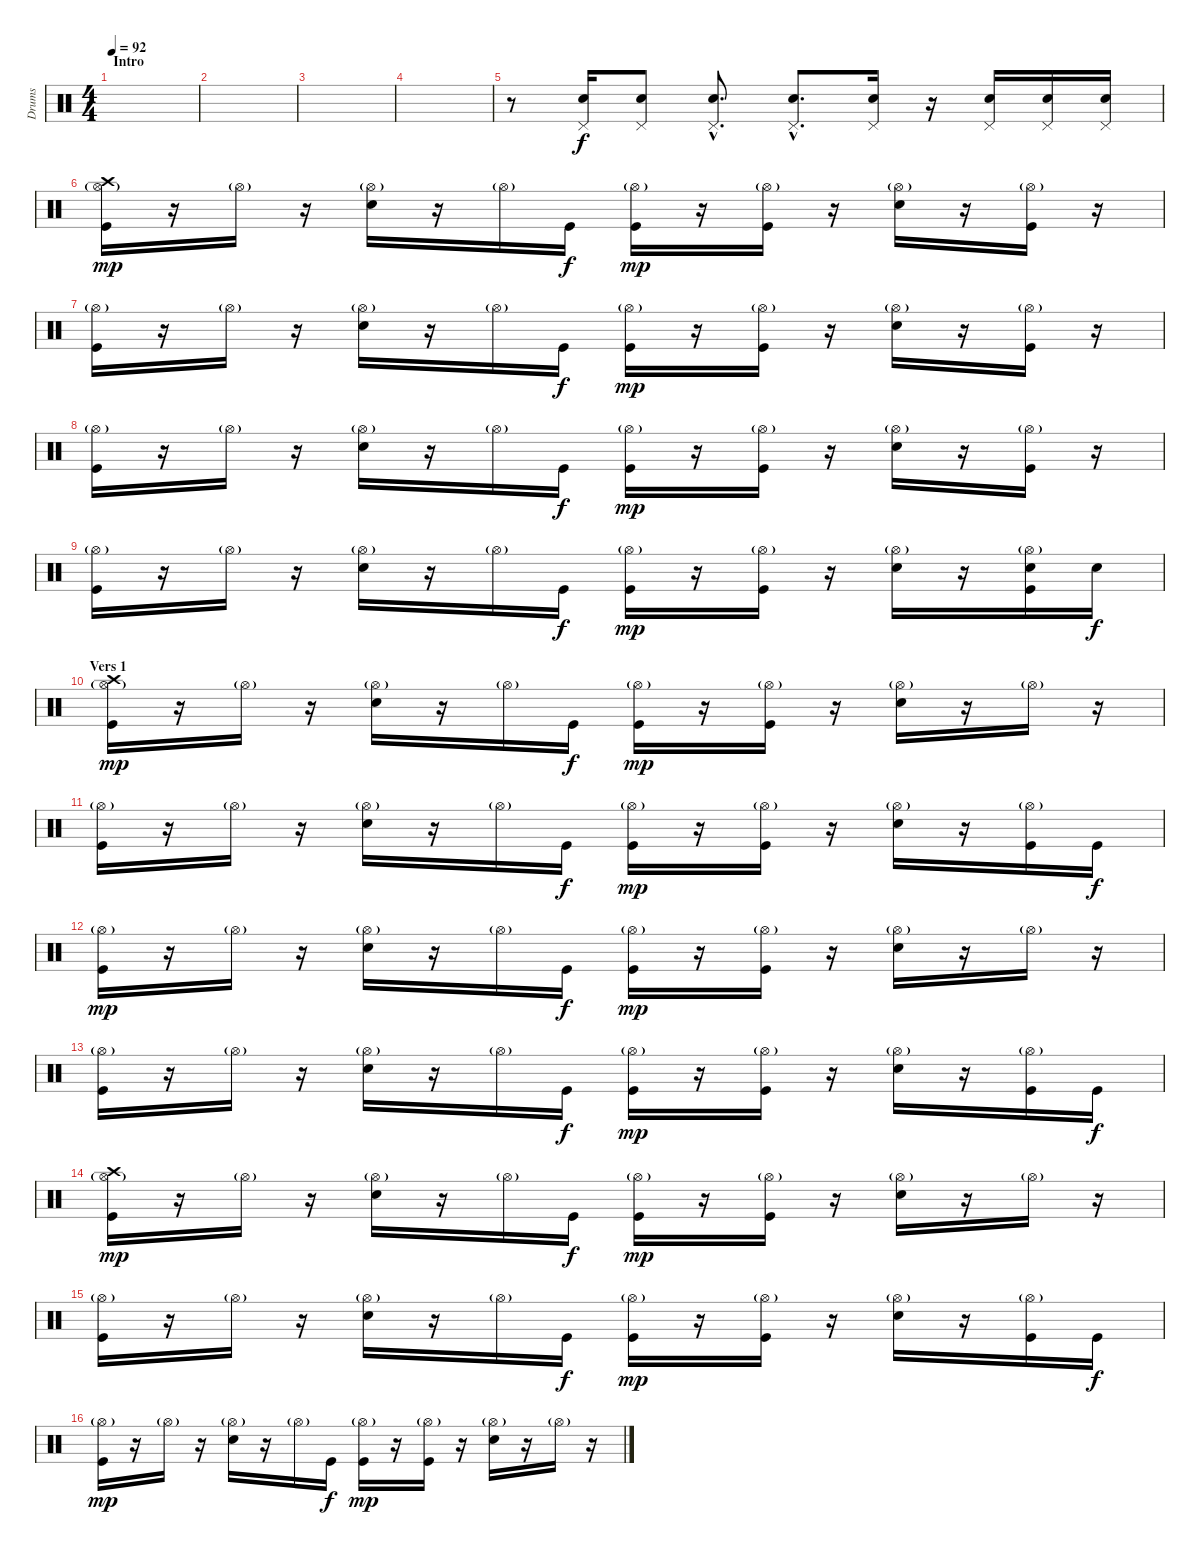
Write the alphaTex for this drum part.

\track ("Drums" "Drums") {instrument percussion}
\staff {score}
\articulation defaults
\ts (4 4)
\section ("" "Intro")
\tempo 92
\clef neutral
\ks c
|
|
|
|
r.8 ("Pedal Hi-Hat (hit)" "Snare (hit) 2").16 ("Pedal Hi-Hat (hit)" "Snare (hit) 2").8 ("Pedal Hi-Hat (hit)"{hac} "Snare (hit) 2"{hac}).8{d} ("Pedal Hi-Hat (hit)"{hac} "Snare (hit) 2"{hac}).8{d} ("Pedal Hi-Hat (hit)" "Snare (hit) 2").16 r.16 ("Pedal Hi-Hat (hit)" "Snare (hit) 2").16 ("Pedal Hi-Hat (hit)" "Snare (hit) 2").16 ("Pedal Hi-Hat (hit)" "Snare (hit) 2").16 |
("Hi-Hat (open)"{g} "Crash high (hit)" "Kick (hit)").16{dy mp} r.16 "Hi-Hat (open)"{g}.16 r.16 ("Hi-Hat (open)"{g} "Snare (hit) 2").16 r.16 "Hi-Hat (open)"{g}.16 "Kick (hit)".16{dy f} ("Hi-Hat (open)"{g} "Kick (hit)").16{dy mp} r.16 ("Hi-Hat (open)"{g} "Kick (hit)").16 r.16 ("Hi-Hat (open)"{g} "Snare (hit) 2").16 r.16 ("Hi-Hat (open)"{g} "Kick (hit)").16 r.16 |
("Hi-Hat (open)"{g} "Kick (hit)").16 r.16 "Hi-Hat (open)"{g}.16 r.16 ("Hi-Hat (open)"{g} "Snare (hit) 2").16 r.16 "Hi-Hat (open)"{g}.16 "Kick (hit)".16{dy f} ("Hi-Hat (open)"{g} "Kick (hit)").16{dy mp} r.16 ("Hi-Hat (open)"{g} "Kick (hit)").16 r.16 ("Hi-Hat (open)"{g} "Snare (hit) 2").16 r.16 ("Hi-Hat (open)"{g} "Kick (hit)").16 r.16 |
("Hi-Hat (open)"{g} "Kick (hit)").16 r.16 "Hi-Hat (open)"{g}.16 r.16 ("Hi-Hat (open)"{g} "Snare (hit) 2").16 r.16 "Hi-Hat (open)"{g}.16 "Kick (hit)".16{dy f} ("Hi-Hat (open)"{g} "Kick (hit)").16{dy mp} r.16 ("Hi-Hat (open)"{g} "Kick (hit)").16 r.16 ("Hi-Hat (open)"{g} "Snare (hit) 2").16 r.16 ("Hi-Hat (open)"{g} "Kick (hit)").16 r.16 |
("Hi-Hat (open)"{g} "Kick (hit)").16 r.16 "Hi-Hat (open)"{g}.16 r.16 ("Hi-Hat (open)"{g} "Snare (hit) 2").16 r.16 "Hi-Hat (open)"{g}.16 "Kick (hit)".16{dy f} ("Hi-Hat (open)"{g} "Kick (hit)").16{dy mp} r.16 ("Hi-Hat (open)"{g} "Kick (hit)").16 r.16 ("Hi-Hat (open)"{g} "Snare (hit) 2").16 r.16 ("Hi-Hat (open)"{g} "Snare (hit) 2" "Kick (hit)").16 "Snare (hit) 2".16{dy f} |
\section ("" "Vers 1")
("Hi-Hat (open)"{g} "Crash high (hit)" "Kick (hit)").16{dy mp} r.16 "Hi-Hat (open)"{g}.16 r.16 ("Hi-Hat (open)"{g} "Snare (hit) 2").16 r.16 "Hi-Hat (open)"{g}.16 "Kick (hit)".16{dy f} ("Hi-Hat (open)"{g} "Kick (hit)").16{dy mp} r.16 ("Hi-Hat (open)"{g} "Kick (hit)").16 r.16 ("Hi-Hat (open)"{g} "Snare (hit) 2").16 r.16 "Hi-Hat (open)"{g}.16 r.16 |
("Hi-Hat (open)"{g} "Kick (hit)").16 r.16 "Hi-Hat (open)"{g}.16 r.16 ("Hi-Hat (open)"{g} "Snare (hit) 2").16 r.16 "Hi-Hat (open)"{g}.16 "Kick (hit)".16{dy f} ("Hi-Hat (open)"{g} "Kick (hit)").16{dy mp} r.16 ("Hi-Hat (open)"{g} "Kick (hit)").16 r.16 ("Hi-Hat (open)"{g} "Snare (hit) 2").16 r.16 ("Hi-Hat (open)"{g} "Kick (hit)").16 "Kick (hit)".16{dy f} |
("Hi-Hat (open)"{g} "Kick (hit)").16{dy mp} r.16 "Hi-Hat (open)"{g}.16 r.16 ("Hi-Hat (open)"{g} "Snare (hit) 2").16 r.16 "Hi-Hat (open)"{g}.16 "Kick (hit)".16{dy f} ("Hi-Hat (open)"{g} "Kick (hit)").16{dy mp} r.16 ("Hi-Hat (open)"{g} "Kick (hit)").16 r.16 ("Hi-Hat (open)"{g} "Snare (hit) 2").16 r.16 "Hi-Hat (open)"{g}.16 r.16 |
("Hi-Hat (open)"{g} "Kick (hit)").16 r.16 "Hi-Hat (open)"{g}.16 r.16 ("Hi-Hat (open)"{g} "Snare (hit) 2").16 r.16 "Hi-Hat (open)"{g}.16 "Kick (hit)".16{dy f} ("Hi-Hat (open)"{g} "Kick (hit)").16{dy mp} r.16 ("Hi-Hat (open)"{g} "Kick (hit)").16 r.16 ("Hi-Hat (open)"{g} "Snare (hit) 2").16 r.16 ("Hi-Hat (open)"{g} "Kick (hit)").16 "Kick (hit)".16{dy f} |
("Hi-Hat (open)"{g} "Crash high (hit)" "Kick (hit)").16{dy mp} r.16 "Hi-Hat (open)"{g}.16 r.16 ("Hi-Hat (open)"{g} "Snare (hit) 2").16 r.16 "Hi-Hat (open)"{g}.16 "Kick (hit)".16{dy f} ("Hi-Hat (open)"{g} "Kick (hit)").16{dy mp} r.16 ("Hi-Hat (open)"{g} "Kick (hit)").16 r.16 ("Hi-Hat (open)"{g} "Snare (hit) 2").16 r.16 "Hi-Hat (open)"{g}.16 r.16 |
("Hi-Hat (open)"{g} "Kick (hit)").16 r.16 "Hi-Hat (open)"{g}.16 r.16 ("Hi-Hat (open)"{g} "Snare (hit) 2").16 r.16 "Hi-Hat (open)"{g}.16 "Kick (hit)".16{dy f} ("Hi-Hat (open)"{g} "Kick (hit)").16{dy mp} r.16 ("Hi-Hat (open)"{g} "Kick (hit)").16 r.16 ("Hi-Hat (open)"{g} "Snare (hit) 2").16 r.16 ("Hi-Hat (open)"{g} "Kick (hit)").16 "Kick (hit)".16{dy f} |
("Hi-Hat (open)"{g} "Kick (hit)").16{dy mp} r.16 "Hi-Hat (open)"{g}.16 r.16 ("Hi-Hat (open)"{g} "Snare (hit) 2").16 r.16 "Hi-Hat (open)"{g}.16 "Kick (hit)".16{dy f} ("Hi-Hat (open)"{g} "Kick (hit)").16{dy mp} r.16 ("Hi-Hat (open)"{g} "Kick (hit)").16 r.16 ("Hi-Hat (open)"{g} "Snare (hit) 2").16 r.16 "Hi-Hat (open)"{g}.16 r.16
